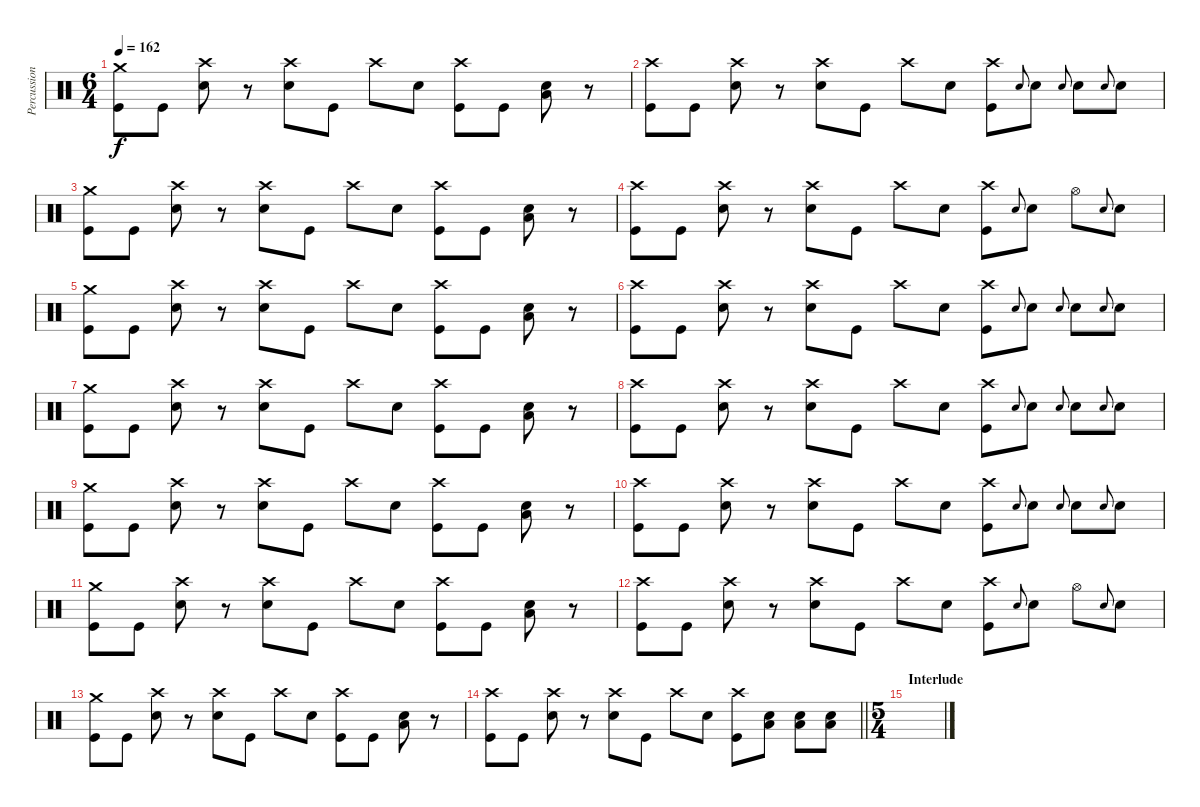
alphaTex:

\track ("Percussion" "Percussion") {instrument percussion}
\staff {score}
\articulation defaults
\ts (6 4)
\tempo 162
\clef neutral
\ks c
("Crash medium (hit)" "Kick (hit)").8{dy f} "Kick (hit)".8 ("Crash high (hit)" "Snare (hit) 2").8 r.8 ("Crash high (hit)" "Snare (hit) 2").8 "Kick (hit)".8 "Crash high (hit)".8 "Snare (hit) 2".8 ("Crash high (hit)" "Kick (hit)").8 "Kick (hit)".8 ("Low Floor Tom (hit)" "Snare (hit) 2").8 r.8 |
("Crash high (hit)" "Kick (hit)").8 "Kick (hit)".8 ("Crash high (hit)" "Snare (hit) 2").8 r.8 ("Crash high (hit)" "Snare (hit) 2").8 "Kick (hit)".8 "Crash high (hit)".8 "Snare (hit) 2".8 ("Crash high (hit)" "Kick (hit)").8 "Snare (hit) 2".8{gr onbeat} "Snare (hit) 2".8 "Snare (hit) 2".8{gr onbeat} "Snare (hit) 2".8 "Snare (hit) 2".8{gr onbeat} "Snare (hit) 2".8 |
("Crash medium (hit)" "Kick (hit)").8 "Kick (hit)".8 ("Crash high (hit)" "Snare (hit) 2").8 r.8 ("Crash high (hit)" "Snare (hit) 2").8 "Kick (hit)".8 "Crash high (hit)".8 "Snare (hit) 2".8 ("Crash high (hit)" "Kick (hit)").8 "Kick (hit)".8 ("Low Floor Tom (hit)" "Snare (hit) 2").8 r.8 |
("Crash high (hit)" "Kick (hit)").8 "Kick (hit)".8 ("Crash high (hit)" "Snare (hit) 2").8 r.8 ("Crash high (hit)" "Snare (hit) 2").8 "Kick (hit)".8 "Crash high (hit)".8 "Snare (hit) 2".8 ("Crash high (hit)" "Kick (hit)").8 "Snare (hit) 2".8{gr onbeat} "Snare (hit) 2".8 "Hi-Hat (open)".8 "Snare (hit) 2".8{gr onbeat} "Snare (hit) 2".8 |
("Crash medium (hit)" "Kick (hit)").8 "Kick (hit)".8 ("Crash high (hit)" "Snare (hit) 2").8 r.8 ("Crash high (hit)" "Snare (hit) 2").8 "Kick (hit)".8 "Crash high (hit)".8 "Snare (hit) 2".8 ("Crash high (hit)" "Kick (hit)").8 "Kick (hit)".8 ("Low Floor Tom (hit)" "Snare (hit) 2").8 r.8 |
("Crash high (hit)" "Kick (hit)").8 "Kick (hit)".8 ("Crash high (hit)" "Snare (hit) 2").8 r.8 ("Crash high (hit)" "Snare (hit) 2").8 "Kick (hit)".8 "Crash high (hit)".8 "Snare (hit) 2".8 ("Crash high (hit)" "Kick (hit)").8 "Snare (hit) 2".8{gr onbeat} "Snare (hit) 2".8 "Snare (hit) 2".8{gr onbeat} "Snare (hit) 2".8 "Snare (hit) 2".8{gr onbeat} "Snare (hit) 2".8 |
("Crash medium (hit)" "Kick (hit)").8 "Kick (hit)".8 ("Crash high (hit)" "Snare (hit) 2").8 r.8 ("Crash high (hit)" "Snare (hit) 2").8 "Kick (hit)".8 "Crash high (hit)".8 "Snare (hit) 2".8 ("Crash high (hit)" "Kick (hit)").8 "Kick (hit)".8 ("Low Floor Tom (hit)" "Snare (hit) 2").8 r.8 |
("Crash high (hit)" "Kick (hit)").8 "Kick (hit)".8 ("Crash high (hit)" "Snare (hit) 2").8 r.8 ("Crash high (hit)" "Snare (hit) 2").8 "Kick (hit)".8 "Crash high (hit)".8 "Snare (hit) 2".8 ("Crash high (hit)" "Kick (hit)").8 "Snare (hit) 2".8{gr onbeat} "Snare (hit) 2".8 "Snare (hit) 2".8{gr onbeat} "Snare (hit) 2".8 "Snare (hit) 2".8{gr onbeat} "Snare (hit) 2".8 |
("Crash medium (hit)" "Kick (hit)").8 "Kick (hit)".8 ("Crash high (hit)" "Snare (hit) 2").8 r.8 ("Crash high (hit)" "Snare (hit) 2").8 "Kick (hit)".8 "Crash high (hit)".8 "Snare (hit) 2".8 ("Crash high (hit)" "Kick (hit)").8 "Kick (hit)".8 ("Low Floor Tom (hit)" "Snare (hit) 2").8 r.8 |
("Crash high (hit)" "Kick (hit)").8 "Kick (hit)".8 ("Crash high (hit)" "Snare (hit) 2").8 r.8 ("Crash high (hit)" "Snare (hit) 2").8 "Kick (hit)".8 "Crash high (hit)".8 "Snare (hit) 2".8 ("Crash high (hit)" "Kick (hit)").8 "Snare (hit) 2".8{gr onbeat} "Snare (hit) 2".8 "Snare (hit) 2".8{gr onbeat} "Snare (hit) 2".8 "Snare (hit) 2".8{gr onbeat} "Snare (hit) 2".8 |
("Crash medium (hit)" "Kick (hit)").8 "Kick (hit)".8 ("Crash high (hit)" "Snare (hit) 2").8 r.8 ("Crash high (hit)" "Snare (hit) 2").8 "Kick (hit)".8 "Crash high (hit)".8 "Snare (hit) 2".8 ("Crash high (hit)" "Kick (hit)").8 "Kick (hit)".8 ("Low Floor Tom (hit)" "Snare (hit) 2").8 r.8 |
("Crash high (hit)" "Kick (hit)").8 "Kick (hit)".8 ("Crash high (hit)" "Snare (hit) 2").8 r.8 ("Crash high (hit)" "Snare (hit) 2").8 "Kick (hit)".8 "Crash high (hit)".8 "Snare (hit) 2".8 ("Crash high (hit)" "Kick (hit)").8 "Snare (hit) 2".8{gr onbeat} "Snare (hit) 2".8 "Hi-Hat (open)".8 "Snare (hit) 2".8{gr onbeat} "Snare (hit) 2".8 |
("Crash medium (hit)" "Kick (hit)").8 "Kick (hit)".8 ("Crash high (hit)" "Snare (hit) 2").8 r.8 ("Crash high (hit)" "Snare (hit) 2").8 "Kick (hit)".8 "Crash high (hit)".8 "Snare (hit) 2".8 ("Crash high (hit)" "Kick (hit)").8 "Kick (hit)".8 ("Low Floor Tom (hit)" "Snare (hit) 2").8 r.8 |
\barLineRight lightlight
("Crash high (hit)" "Kick (hit)").8 "Kick (hit)".8 ("Crash high (hit)" "Snare (hit) 2").8 r.8 ("Crash high (hit)" "Snare (hit) 2").8 "Kick (hit)".8 "Crash high (hit)".8 "Snare (hit) 2".8 ("Crash high (hit)" "Kick (hit)").8 ("Low Floor Tom (hit)" "Snare (hit) 2").8 ("Low Floor Tom (hit)" "Snare (hit) 2").8 ("Low Floor Tom (hit)" "Snare (hit) 2").8 |
\ts (5 4)
\section ("" "Interlude")
